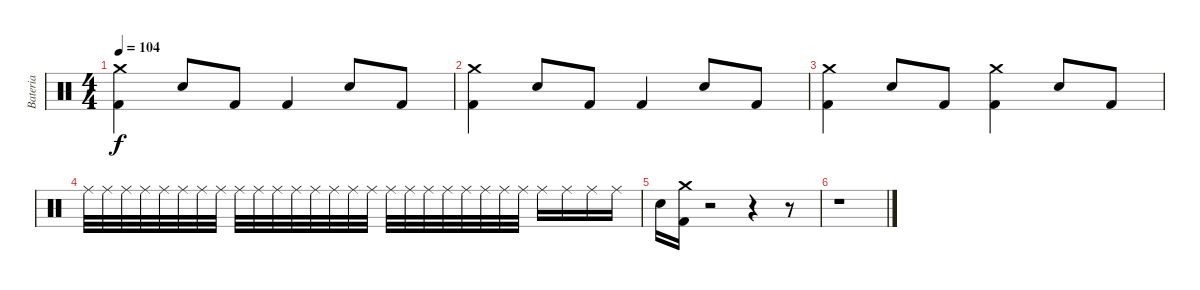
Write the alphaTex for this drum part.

\track ("Bateria" "Bateria") {instrument percussion}
\staff {score}
\articulation defaults
\ts (4 4)
\tempo 104
\clef neutral
\ks c
("Crash medium (hit)" "Kick (hit) 2").4{dy f} "Snare (hit) 2".8 "Kick (hit) 2".8 "Kick (hit) 2".4 "Snare (hit) 2".8 "Kick (hit) 2".8 |
("Crash medium (hit)" "Kick (hit) 2").4 "Snare (hit) 2".8 "Kick (hit) 2".8 "Kick (hit) 2".4 "Snare (hit) 2".8 "Kick (hit) 2".8 |
("Crash medium (hit)" "Kick (hit) 2").4 "Snare (hit) 2".8 "Kick (hit) 2".8 ("Crash medium (hit)" "Kick (hit) 2").4 "Snare (hit) 2".8 "Kick (hit) 2".8 |
"Ride (middle)".32 "Ride (middle)".32 "Ride (middle)".32 "Ride (middle)".32 "Ride (middle)".32 "Ride (middle)".32 "Ride (middle)".32 "Ride (middle)".32 "Ride (middle)".32 "Ride (middle)".32 "Ride (middle)".32 "Ride (middle)".32 "Ride (middle)".32 "Ride (middle)".32 "Ride (middle)".32 "Ride (middle)".32 "Ride (middle)".32 "Ride (middle)".32 "Ride (middle)".32 "Ride (middle)".32 "Ride (middle)".32 "Ride (middle)".32 "Ride (middle)".32 "Ride (middle)".32 "Ride (middle)".16 "Ride (middle)".16 "Ride (middle)".16 "Ride (middle)".16 |
"Snare (hit) 2".16 ("Crash medium (hit)" "Kick (hit) 2").16 r.2 r.4 r.8 |
r.1
